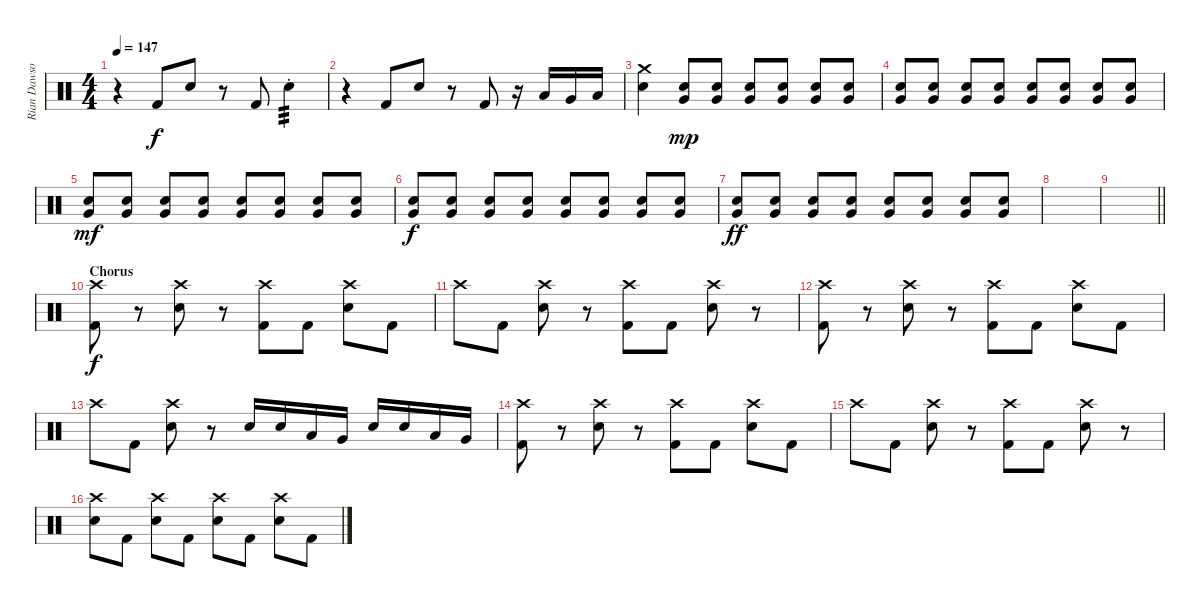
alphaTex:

\track ("Rian Dawson (Drums)" "Rian Dawso") {instrument percussion}
\staff {score}
\articulation defaults
\ts (4 4)
\tempo 147
\clef neutral
\ks c
r.4{dy f} "Kick (hit) 2".8 "Electric Snare (hit)".8 r.8 "Kick (hit) 2".8 "Electric Snare (hit)"{st}.4{tp 3} |
r.4 "Kick (hit) 2".8 "Electric Snare (hit)".8 r.8 "Kick (hit) 2".8 r.16 "Low Tom (hit)".16 "Very Low Tom (hit)".16 "Low Floor Tom (hit)".16 |
("Crash medium (hit)" "Electric Snare (hit)").4 ("Very Low Tom (hit)" "Electric Snare (hit)").8{dy mp} ("Very Low Tom (hit)" "Electric Snare (hit)").8 ("Very Low Tom (hit)" "Electric Snare (hit)").8 ("Very Low Tom (hit)" "Electric Snare (hit)").8 ("Very Low Tom (hit)" "Electric Snare (hit)").8 ("Very Low Tom (hit)" "Electric Snare (hit)").8 |
("Very Low Tom (hit)" "Electric Snare (hit)").8 ("Very Low Tom (hit)" "Electric Snare (hit)").8 ("Very Low Tom (hit)" "Electric Snare (hit)").8 ("Very Low Tom (hit)" "Electric Snare (hit)").8 ("Very Low Tom (hit)" "Electric Snare (hit)").8 ("Very Low Tom (hit)" "Electric Snare (hit)").8 ("Very Low Tom (hit)" "Electric Snare (hit)").8 ("Very Low Tom (hit)" "Electric Snare (hit)").8 |
("Very Low Tom (hit)" "Electric Snare (hit)").8{dy mf} ("Very Low Tom (hit)" "Electric Snare (hit)").8 ("Very Low Tom (hit)" "Electric Snare (hit)").8 ("Very Low Tom (hit)" "Electric Snare (hit)").8 ("Very Low Tom (hit)" "Electric Snare (hit)").8 ("Very Low Tom (hit)" "Electric Snare (hit)").8 ("Very Low Tom (hit)" "Electric Snare (hit)").8 ("Very Low Tom (hit)" "Electric Snare (hit)").8 |
("Very Low Tom (hit)" "Electric Snare (hit)").8{dy f} ("Very Low Tom (hit)" "Electric Snare (hit)").8 ("Very Low Tom (hit)" "Electric Snare (hit)").8 ("Very Low Tom (hit)" "Electric Snare (hit)").8 ("Very Low Tom (hit)" "Electric Snare (hit)").8 ("Very Low Tom (hit)" "Electric Snare (hit)").8 ("Very Low Tom (hit)" "Electric Snare (hit)").8 ("Very Low Tom (hit)" "Electric Snare (hit)").8 |
("Very Low Tom (hit)" "Electric Snare (hit)").8{dy ff} ("Very Low Tom (hit)" "Electric Snare (hit)").8 ("Very Low Tom (hit)" "Electric Snare (hit)").8 ("Very Low Tom (hit)" "Electric Snare (hit)").8 ("Very Low Tom (hit)" "Electric Snare (hit)").8 ("Very Low Tom (hit)" "Electric Snare (hit)").8 ("Very Low Tom (hit)" "Electric Snare (hit)").8 ("Very Low Tom (hit)" "Electric Snare (hit)").8 |
|
\barLineRight lightlight
|
\section ("" "Chorus")
("Crash high (hit)" "Kick (hit) 2").8{dy f} r.8 ("Crash high (hit)" "Electric Snare (hit)").8 r.8 ("Crash high (hit)" "Kick (hit) 2").8 "Kick (hit) 2".8 ("Crash high (hit)" "Electric Snare (hit)").8 "Kick (hit) 2".8 |
"Crash high (hit)".8 "Kick (hit) 2".8 ("Crash high (hit)" "Electric Snare (hit)").8 r.8 ("Crash high (hit)" "Kick (hit) 2").8 "Kick (hit) 2".8 ("Crash high (hit)" "Electric Snare (hit)").8 r.8 |
("Crash high (hit)" "Kick (hit) 2").8 r.8 ("Crash high (hit)" "Electric Snare (hit)").8 r.8 ("Crash high (hit)" "Kick (hit) 2").8 "Kick (hit) 2".8 ("Crash high (hit)" "Electric Snare (hit)").8 "Kick (hit) 2".8 |
"Crash high (hit)".8 "Kick (hit) 2".8 ("Crash high (hit)" "Electric Snare (hit)").8 r.8 "Electric Snare (hit)".16 "Electric Snare (hit)".16 "Low Tom (hit)".16 "Very Low Tom (hit)".16 "Electric Snare (hit)".16 "Electric Snare (hit)".16 "Low Tom (hit)".16 "Very Low Tom (hit)".16 |
("Crash high (hit)" "Kick (hit) 2").8 r.8 ("Crash high (hit)" "Electric Snare (hit)").8 r.8 ("Crash high (hit)" "Kick (hit) 2").8 "Kick (hit) 2".8 ("Crash high (hit)" "Electric Snare (hit)").8 "Kick (hit) 2".8 |
"Crash high (hit)".8 "Kick (hit) 2".8 ("Crash high (hit)" "Electric Snare (hit)").8 r.8 ("Crash high (hit)" "Kick (hit) 2").8 "Kick (hit) 2".8 ("Crash high (hit)" "Electric Snare (hit)").8 r.8 |
("Crash high (hit)" "Electric Snare (hit)").8 "Kick (hit) 2".8 ("Crash high (hit)" "Electric Snare (hit)").8 "Kick (hit) 2".8 ("Crash high (hit)" "Electric Snare (hit)").8 "Kick (hit) 2".8 ("Crash high (hit)" "Electric Snare (hit)").8 "Kick (hit) 2".8
